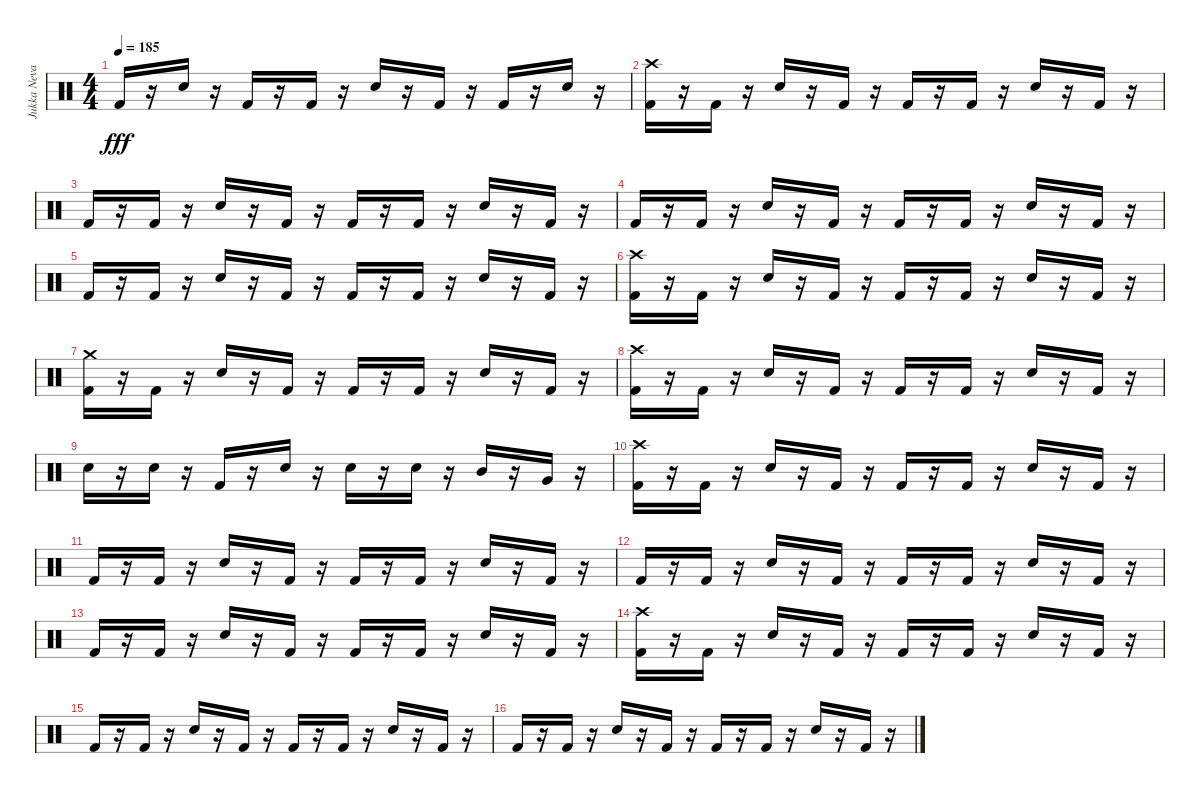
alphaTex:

\track ("Jukka Nevalinen" "Jukka Neva") {instrument percussion}
\staff {score}
\articulation defaults
\ts (4 4)
\tempo 185
\clef neutral
\ks c "Kick (hit) 2".16{dy fff}
r.16 "Snare (hit) 2".16 r.16 "Kick (hit) 2".16 r.16 "Kick (hit) 2".16 r.16 "Snare (hit) 2".16 r.16 "Kick (hit) 2".16 r.16 "Kick (hit) 2".16 r.16 "Snare (hit) 2".16 r.16 |
("Kick (hit) 2" "Crash high (hit)").16 r.16 "Kick (hit) 2".16 r.16 "Snare (hit) 2".16 r.16 "Kick (hit) 2".16 r.16 "Kick (hit) 2".16 r.16 "Kick (hit) 2".16 r.16 "Snare (hit) 2".16 r.16 "Kick (hit) 2".16 r.16 |
"Kick (hit) 2".16 r.16 "Kick (hit) 2".16 r.16 "Snare (hit) 2".16 r.16 "Kick (hit) 2".16 r.16 "Kick (hit) 2".16 r.16 "Kick (hit) 2".16 r.16 "Snare (hit) 2".16 r.16 "Kick (hit) 2".16 r.16 |
"Kick (hit) 2".16 r.16 "Kick (hit) 2".16 r.16 "Snare (hit) 2".16 r.16 "Kick (hit) 2".16 r.16 "Kick (hit) 2".16 r.16 "Kick (hit) 2".16 r.16 "Snare (hit) 2".16 r.16 "Kick (hit) 2".16 r.16 |
"Kick (hit) 2".16 r.16 "Kick (hit) 2".16 r.16 "Snare (hit) 2".16 r.16 "Kick (hit) 2".16 r.16 "Kick (hit) 2".16 r.16 "Kick (hit) 2".16 r.16 "Snare (hit) 2".16 r.16 "Kick (hit) 2".16 r.16 |
("Kick (hit) 2" "Crash high (hit)").16 r.16 "Kick (hit) 2".16 r.16 "Snare (hit) 2".16 r.16 "Kick (hit) 2".16 r.16 "Kick (hit) 2".16 r.16 "Kick (hit) 2".16 r.16 "Snare (hit) 2".16 r.16 "Kick (hit) 2".16 r.16 |
("Kick (hit) 2" "Crash medium (hit)").16 r.16 "Kick (hit) 2".16 r.16 "Snare (hit) 2".16 r.16 "Kick (hit) 2".16 r.16 "Kick (hit) 2".16 r.16 "Kick (hit) 2".16 r.16 "Snare (hit) 2".16 r.16 "Kick (hit) 2".16 r.16 |
("Kick (hit) 2" "Crash high (hit)").16 r.16 "Kick (hit) 2".16 r.16 "Snare (hit) 2".16 r.16 "Kick (hit) 2".16 r.16 "Kick (hit) 2".16 r.16 "Kick (hit) 2".16 r.16 "Snare (hit) 2".16 r.16 "Kick (hit) 2".16 r.16 |
"Snare (hit) 2".16 r.16 "Snare (hit) 2".16 r.16 "Kick (hit) 2".16 r.16 "Snare (hit) 2".16 r.16 "Snare (hit) 2".16 r.16 "Snare (hit) 2".16 r.16 "Mid Tom (hit)".16 r.16 "Very Low Tom (hit)".16 r.16 |
("Kick (hit) 2" "Crash high (hit)").16{volume 12} r.16 "Kick (hit) 2".16{volume 12} r.16 "Snare (hit) 2".16 r.16 "Kick (hit) 2".16{volume 12} r.16 "Kick (hit) 2".16 r.16 "Kick (hit) 2".16{volume 12} r.16 "Snare (hit) 2".16 r.16 "Kick (hit) 2".16{volume 12} r.16 |
"Kick (hit) 2".16 r.16 "Kick (hit) 2".16{volume 12} r.16 "Snare (hit) 2".16{volume 12} r.16 "Kick (hit) 2".16 r.16 "Kick (hit) 2".16{volume 12} r.16 "Kick (hit) 2".16 r.16 "Snare (hit) 2".16{volume 12} r.16 "Kick (hit) 2".16 r.16 |
"Kick (hit) 2".16{volume 11} r.16 "Kick (hit) 2".16 r.16 "Snare (hit) 2".16{volume 11} r.16 "Kick (hit) 2".16 r.16 "Kick (hit) 2".16{volume 11} r.16 "Kick (hit) 2".16 r.16 "Snare (hit) 2".16{volume 11} r.16 "Kick (hit) 2".16 r.16 |
"Kick (hit) 2".16{volume 11} r.16 "Kick (hit) 2".16 r.16 "Snare (hit) 2".16{volume 11} r.16 "Kick (hit) 2".16 r.16 "Kick (hit) 2".16{volume 11} r.16 "Kick (hit) 2".16 r.16 "Snare (hit) 2".16{volume 10} r.16 "Kick (hit) 2".16 r.16 |
("Kick (hit) 2" "Crash high (hit)").16{volume 10} r.16 "Kick (hit) 2".16 r.16 "Snare (hit) 2".16{volume 10} r.16 "Kick (hit) 2".16 r.16 "Kick (hit) 2".16{volume 10} r.16 "Kick (hit) 2".16 r.16 "Snare (hit) 2".16{volume 10} r.16 "Kick (hit) 2".16{volume 10} r.16 |
"Kick (hit) 2".16 r.16 "Kick (hit) 2".16{volume 10} r.16 "Snare (hit) 2".16 r.16 "Kick (hit) 2".16{volume 10} r.16 "Kick (hit) 2".16 r.16 "Kick (hit) 2".16{volume 10} r.16 "Snare (hit) 2".16 r.16 "Kick (hit) 2".16{volume 9} r.16 |
"Kick (hit) 2".16 r.16 "Kick (hit) 2".16{volume 9} r.16 "Snare (hit) 2".16 r.16 "Kick (hit) 2".16{volume 9} r.16 "Kick (hit) 2".16 r.16 "Kick (hit) 2".16{volume 9} r.16 "Snare (hit) 2".16 r.16 "Kick (hit) 2".16{volume 9} r.16
